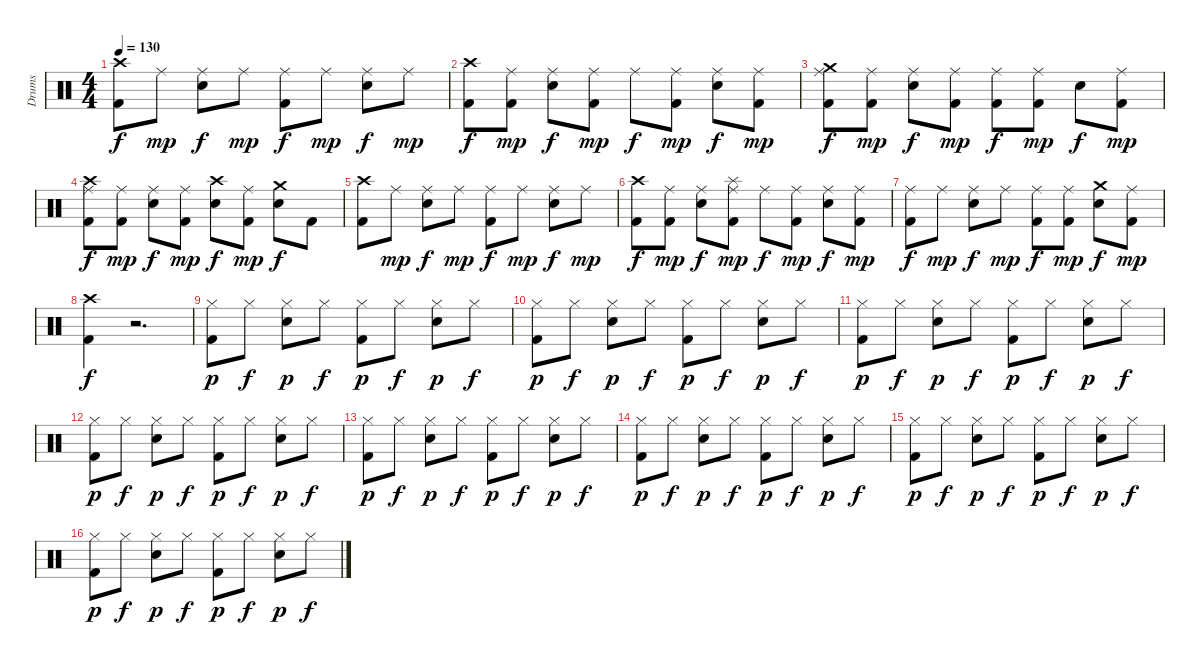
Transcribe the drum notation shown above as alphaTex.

\track ("Drums" "Drums") {instrument percussion}
\staff {score}
\articulation defaults
\ts (4 4)
\tempo 130
\clef neutral
\ks c
("Crash high (hit)" "Kick (hit) 2").8{dy f} "Ride (middle)".8{dy mp} ("Ride (middle)" "Electric Snare (hit)").8{dy f} "Ride (middle)".8{dy mp} ("Ride (middle)" "Kick (hit) 2").8{dy f} "Ride (middle)".8{dy mp} ("Ride (middle)" "Electric Snare (hit)").8{dy f} "Ride (middle)".8{dy mp} |
("Crash high (hit)" "Kick (hit) 2").8{dy f} ("Ride (middle)" "Kick (hit) 2").8{dy mp} ("Ride (middle)" "Electric Snare (hit)").8{dy f} ("Ride (middle)" "Kick (hit) 2").8{dy mp} "Ride (middle)".8{dy f} ("Ride (middle)" "Kick (hit) 2").8{dy mp} ("Ride (middle)" "Electric Snare (hit)").8{dy f} ("Ride (middle)" "Kick (hit) 2").8{dy mp} |
("Crash medium (hit)" "Ride (middle)" "Kick (hit) 2").8{dy f} ("Ride (middle)" "Kick (hit) 2").8{dy mp} ("Ride (middle)" "Electric Snare (hit)").8{dy f} ("Ride (middle)" "Kick (hit) 2").8{dy mp} ("Ride (middle)" "Kick (hit) 2").8{dy f} ("Ride (middle)" "Kick (hit) 2").8{dy mp} "Electric Snare (hit)".8{dy f} ("Ride (middle)" "Kick (hit) 2").8{dy mp} |
("Crash high (hit)" "Ride (middle)" "Kick (hit) 2").8{dy f} ("Ride (middle)" "Kick (hit) 2").8{dy mp} ("Ride (middle)" "Electric Snare (hit)").8{dy f} ("Ride (middle)" "Kick (hit) 2").8{dy mp} ("Crash high (hit)" "Electric Snare (hit)").8{dy f} ("Ride (middle)" "Kick (hit) 2").8{dy mp} ("Crash medium (hit)" "Electric Snare (hit)").8{dy f} "Kick (hit) 2".8 |
("Crash high (hit)" "Kick (hit) 2").8 "Ride (middle)".8{dy mp} ("Ride (middle)" "Electric Snare (hit)").8{dy f} "Ride (middle)".8{dy mp} ("Ride (middle)" "Kick (hit) 2").8{dy f} "Ride (middle)".8{dy mp} ("Ride (middle)" "Electric Snare (hit)").8{dy f} "Ride (middle)".8{dy mp} |
("Crash high (hit)" "Kick (hit) 2").8{dy f} ("Ride (middle)" "Kick (hit) 2").8{dy mp} ("Ride (middle)" "Electric Snare (hit)").8{dy f} ("Splash (hit)" "Ride (middle)" "Kick (hit) 2").8{dy mp} "Ride (middle)".8{dy f} ("Ride (middle)" "Kick (hit) 2").8{dy mp} ("Ride (middle)" "Electric Snare (hit)").8{dy f} ("Ride (middle)" "Kick (hit) 2").8{dy mp} |
("Ride (middle)" "Kick (hit) 2").8{dy f} "Ride (middle)".8{dy mp} ("Ride (middle)" "Electric Snare (hit)").8{dy f} "Ride (middle)".8{dy mp} ("Ride (middle)" "Kick (hit) 2").8{dy f} ("Ride (middle)" "Kick (hit) 2").8{dy mp} ("Crash medium (hit)" "Electric Snare (hit)").8{dy f} ("Ride (middle)" "Kick (hit) 2").8{dy mp} |
("Crash high (hit)" "Kick (hit) 2").4{dy f} r.2{d} |
("Hi-Hat (closed)" "Kick (hit) 2").8{dy p} "Hi-Hat (closed)".8{dy f} ("Hi-Hat (closed)" "Electric Snare (hit)").8{dy p} "Hi-Hat (closed)".8{dy f} ("Hi-Hat (closed)" "Kick (hit) 2").8{dy p} "Hi-Hat (closed)".8{dy f} ("Hi-Hat (closed)" "Electric Snare (hit)").8{dy p} "Hi-Hat (closed)".8{dy f} |
("Hi-Hat (closed)" "Kick (hit) 2").8{dy p} "Hi-Hat (closed)".8{dy f} ("Hi-Hat (closed)" "Electric Snare (hit)").8{dy p} "Hi-Hat (closed)".8{dy f} ("Hi-Hat (closed)" "Kick (hit) 2").8{dy p} "Hi-Hat (closed)".8{dy f} ("Hi-Hat (closed)" "Electric Snare (hit)").8{dy p} "Hi-Hat (closed)".8{dy f} |
("Hi-Hat (closed)" "Kick (hit) 2").8{dy p} "Hi-Hat (closed)".8{dy f} ("Hi-Hat (closed)" "Electric Snare (hit)").8{dy p} "Hi-Hat (closed)".8{dy f} ("Hi-Hat (closed)" "Kick (hit) 2").8{dy p} "Hi-Hat (closed)".8{dy f} ("Hi-Hat (closed)" "Electric Snare (hit)").8{dy p} "Hi-Hat (closed)".8{dy f} |
("Hi-Hat (closed)" "Kick (hit) 2").8{dy p} "Hi-Hat (closed)".8{dy f} ("Hi-Hat (closed)" "Electric Snare (hit)").8{dy p} "Hi-Hat (closed)".8{dy f} ("Hi-Hat (closed)" "Kick (hit) 2").8{dy p} "Hi-Hat (closed)".8{dy f} ("Hi-Hat (closed)" "Electric Snare (hit)").8{dy p} "Hi-Hat (closed)".8{dy f} |
("Hi-Hat (closed)" "Kick (hit) 2").8{dy p} "Hi-Hat (closed)".8{dy f} ("Hi-Hat (closed)" "Electric Snare (hit)").8{dy p} "Hi-Hat (closed)".8{dy f} ("Hi-Hat (closed)" "Kick (hit) 2").8{dy p} "Hi-Hat (closed)".8{dy f} ("Hi-Hat (closed)" "Electric Snare (hit)").8{dy p} "Hi-Hat (closed)".8{dy f} |
("Hi-Hat (closed)" "Kick (hit) 2").8{dy p} "Hi-Hat (closed)".8{dy f} ("Hi-Hat (closed)" "Electric Snare (hit)").8{dy p} "Hi-Hat (closed)".8{dy f} ("Hi-Hat (closed)" "Kick (hit) 2").8{dy p} "Hi-Hat (closed)".8{dy f} ("Hi-Hat (closed)" "Electric Snare (hit)").8{dy p} "Hi-Hat (closed)".8{dy f} |
("Hi-Hat (closed)" "Kick (hit) 2").8{dy p} "Hi-Hat (closed)".8{dy f} ("Hi-Hat (closed)" "Electric Snare (hit)").8{dy p} "Hi-Hat (closed)".8{dy f} ("Hi-Hat (closed)" "Kick (hit) 2").8{dy p} "Hi-Hat (closed)".8{dy f} ("Hi-Hat (closed)" "Electric Snare (hit)").8{dy p} "Hi-Hat (closed)".8{dy f} |
("Hi-Hat (closed)" "Kick (hit) 2").8{dy p} "Hi-Hat (closed)".8{dy f} ("Hi-Hat (closed)" "Electric Snare (hit)").8{dy p} "Hi-Hat (closed)".8{dy f} ("Hi-Hat (closed)" "Kick (hit) 2").8{dy p} "Hi-Hat (closed)".8{dy f} ("Hi-Hat (closed)" "Electric Snare (hit)").8{dy p} "Hi-Hat (closed)".8{dy f}
